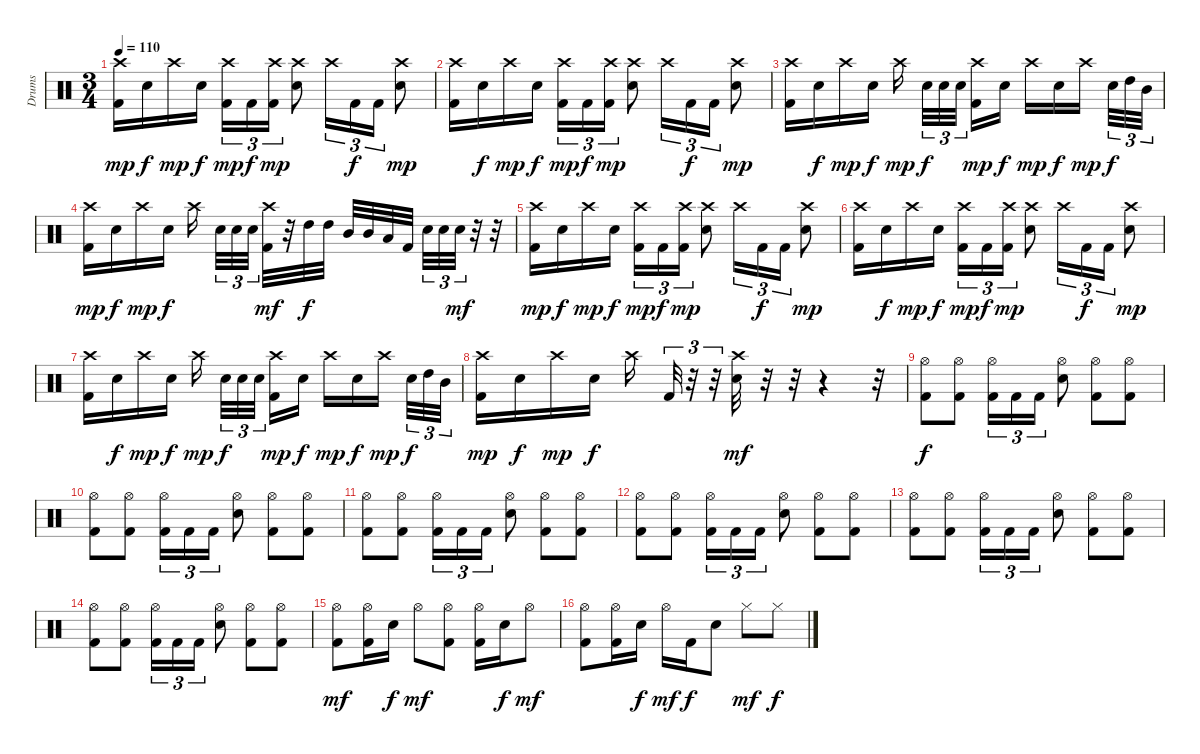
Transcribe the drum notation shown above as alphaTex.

\track ("Drums" "Drums") {instrument percussion}
\staff {score}
\articulation defaults
\ts (3 4)
\tempo 110
\clef neutral
\ks c
("Crash high (hit)" "Kick (hit) 2").16{dy mp} "Snare (hit) 2".16{dy f} "Crash high (hit)".16{dy mp} "Snare (hit) 2".16{dy f} ("Crash high (hit)" "Kick (hit) 2").16{tu (3 2) dy mp} "Kick (hit) 2".16{tu (3 2) dy f} ("Crash high (hit)" "Kick (hit) 2").16{tu (3 2) dy mp} ("Crash high (hit)" "Snare (hit) 2").8 "Crash high (hit)".16{tu (3 2)} "Kick (hit) 2".16{tu (3 2) dy f} "Kick (hit) 2".16{tu (3 2)} ("Crash high (hit)" "Snare (hit) 2").8{dy mp} |
("Crash high (hit)" "Kick (hit) 2").16 "Snare (hit) 2".16{dy f} "Crash high (hit)".16{dy mp} "Snare (hit) 2".16{dy f} ("Crash high (hit)" "Kick (hit) 2").16{tu (3 2) dy mp} "Kick (hit) 2".16{tu (3 2) dy f} ("Crash high (hit)" "Kick (hit) 2").16{tu (3 2) dy mp} ("Crash high (hit)" "Snare (hit) 2").8 "Crash high (hit)".16{tu (3 2)} "Kick (hit) 2".16{tu (3 2) dy f} "Kick (hit) 2".16{tu (3 2)} ("Crash high (hit)" "Snare (hit) 2").8{dy mp} |
("Crash high (hit)" "Kick (hit) 2").16 "Snare (hit) 2".16{dy f} "Crash high (hit)".16{dy mp} "Snare (hit) 2".16{dy f} "Crash high (hit)".16{dy mp beam splitsecondary} "Snare (hit) 2".32{tu (3 2) dy f} "Snare (hit) 2".32{tu (3 2)} "Snare (hit) 2".32{tu (3 2) beam splitsecondary} ("Crash high (hit)" "Kick (hit) 2").16{dy mp} "Snare (hit) 2".16{dy f} "Crash high (hit)".16{dy mp} "Snare (hit) 2".16{dy f} "Crash high (hit)".16{dy mp beam splitsecondary} "Snare (hit) 2".32{tu (3 2) dy f} "High Tom (hit)".32{tu (3 2)} "Mid Tom (hit)".32{tu (3 2)} |
("Crash high (hit)" "Kick (hit) 2").16{dy mp} "Snare (hit) 2".16{dy f} "Crash high (hit)".16{dy mp} "Snare (hit) 2".16{dy f} "Crash high (hit)".16{beam splitsecondary} "Snare (hit) 2".32{tu (3 2)} "Snare (hit) 2".32{tu (3 2)} "Snare (hit) 2".32{tu (3 2) beam splitsecondary} ("Crash high (hit)" "Kick (hit) 2").32{dy mf} r.32 "High Tom (hit)".32{dy f} "High Tom (hit)".32 "Mid Tom (hit)".32 "Mid Tom (hit)".32 "Low Tom (hit)".32 "Kick (hit) 2".32{beam splitsecondary} "Snare (hit) 2".32{tu (3 2)} "Snare (hit) 2".32{tu (3 2)} "Snare (hit) 2".32{tu (3 2) dy mf} r.32 r.32 |
("Crash high (hit)" "Kick (hit) 2").16{dy mp} "Snare (hit) 2".16{dy f} "Crash high (hit)".16{dy mp} "Snare (hit) 2".16{dy f} ("Crash high (hit)" "Kick (hit) 2").16{tu (3 2) dy mp} "Kick (hit) 2".16{tu (3 2) dy f} ("Crash high (hit)" "Kick (hit) 2").16{tu (3 2) dy mp} ("Crash high (hit)" "Snare (hit) 2").8 "Crash high (hit)".16{tu (3 2)} "Kick (hit) 2".16{tu (3 2) dy f} "Kick (hit) 2".16{tu (3 2)} ("Crash high (hit)" "Snare (hit) 2").8{dy mp} |
("Crash high (hit)" "Kick (hit) 2").16 "Snare (hit) 2".16{dy f} "Crash high (hit)".16{dy mp} "Snare (hit) 2".16{dy f} ("Crash high (hit)" "Kick (hit) 2").16{tu (3 2) dy mp} "Kick (hit) 2".16{tu (3 2) dy f} ("Crash high (hit)" "Kick (hit) 2").16{tu (3 2) dy mp} ("Crash high (hit)" "Snare (hit) 2").8 "Crash high (hit)".16{tu (3 2)} "Kick (hit) 2".16{tu (3 2) dy f} "Kick (hit) 2".16{tu (3 2)} ("Crash high (hit)" "Snare (hit) 2").8{dy mp} |
("Crash high (hit)" "Kick (hit) 2").16 "Snare (hit) 2".16{dy f} "Crash high (hit)".16{dy mp} "Snare (hit) 2".16{dy f} "Crash high (hit)".16{dy mp beam splitsecondary} "Snare (hit) 2".32{tu (3 2) dy f} "Snare (hit) 2".32{tu (3 2)} "Snare (hit) 2".32{tu (3 2) beam splitsecondary} ("Crash high (hit)" "Kick (hit) 2").16{dy mp} "Snare (hit) 2".16{dy f} "Crash high (hit)".16{dy mp} "Snare (hit) 2".16{dy f} "Crash high (hit)".16{dy mp beam splitsecondary} "Snare (hit) 2".32{tu (3 2) dy f} "High Tom (hit)".32{tu (3 2)} "Mid Tom (hit)".32{tu (3 2)} |
("Crash high (hit)" "Kick (hit) 2").16{dy mp} "Snare (hit) 2".16{dy f} "Crash high (hit)".16{dy mp} "Snare (hit) 2".16{dy f} "Crash high (hit)".16 "Kick (hit) 2".32{tu (3 2)} r.32{tu (3 2)} r.32{tu (3 2)} ("Crash high (hit)" "Snare (hit) 2").32{dy mf} r.32 r.32 r.4 r.32 |
("Hi-Hat (open)" "Kick (hit) 2").8{dy f} ("Hi-Hat (open)" "Kick (hit) 2").8 ("Hi-Hat (open)" "Kick (hit) 2").16{tu (3 2)} "Kick (hit) 2".16{tu (3 2)} "Kick (hit) 2".16{tu (3 2)} ("Hi-Hat (open)" "Snare (hit) 2").8 ("Hi-Hat (open)" "Kick (hit) 2").8 ("Hi-Hat (open)" "Kick (hit) 2").8 |
("Hi-Hat (open)" "Kick (hit) 2").8 ("Hi-Hat (open)" "Kick (hit) 2").8 ("Hi-Hat (open)" "Kick (hit) 2").16{tu (3 2)} "Kick (hit) 2".16{tu (3 2)} "Kick (hit) 2".16{tu (3 2)} ("Hi-Hat (open)" "Snare (hit) 2").8 ("Hi-Hat (open)" "Kick (hit) 2").8 ("Hi-Hat (open)" "Kick (hit) 2").8 |
("Hi-Hat (open)" "Kick (hit) 2").8 ("Hi-Hat (open)" "Kick (hit) 2").8 ("Hi-Hat (open)" "Kick (hit) 2").16{tu (3 2)} "Kick (hit) 2".16{tu (3 2)} "Kick (hit) 2".16{tu (3 2)} ("Hi-Hat (open)" "Snare (hit) 2").8 ("Hi-Hat (open)" "Kick (hit) 2").8 ("Hi-Hat (open)" "Kick (hit) 2").8 |
("Hi-Hat (open)" "Kick (hit) 2").8 ("Hi-Hat (open)" "Kick (hit) 2").8 ("Hi-Hat (open)" "Kick (hit) 2").16{tu (3 2)} "Kick (hit) 2".16{tu (3 2)} "Kick (hit) 2".16{tu (3 2)} ("Hi-Hat (open)" "Snare (hit) 2").8 ("Hi-Hat (open)" "Kick (hit) 2").8 ("Hi-Hat (open)" "Kick (hit) 2").8 |
("Hi-Hat (open)" "Kick (hit) 2").8 ("Hi-Hat (open)" "Kick (hit) 2").8 ("Hi-Hat (open)" "Kick (hit) 2").16{tu (3 2)} "Kick (hit) 2".16{tu (3 2)} "Kick (hit) 2".16{tu (3 2)} ("Hi-Hat (open)" "Snare (hit) 2").8 ("Hi-Hat (open)" "Kick (hit) 2").8 ("Hi-Hat (open)" "Kick (hit) 2").8 |
("Hi-Hat (open)" "Kick (hit) 2").8 ("Hi-Hat (open)" "Kick (hit) 2").8 ("Hi-Hat (open)" "Kick (hit) 2").16{tu (3 2)} "Kick (hit) 2".16{tu (3 2)} "Kick (hit) 2".16{tu (3 2)} ("Hi-Hat (open)" "Snare (hit) 2").8 ("Hi-Hat (open)" "Kick (hit) 2").8 ("Hi-Hat (open)" "Kick (hit) 2").8 |
("Hi-Hat (open)" "Kick (hit) 2").8{dy mf} ("Hi-Hat (open)" "Kick (hit) 2").16 "Snare (hit) 2".16{dy f} "Hi-Hat (open)".8{dy mf} ("Hi-Hat (open)" "Kick (hit) 2").8 ("Hi-Hat (open)" "Kick (hit) 2").16 "Snare (hit) 2".16{dy f} "Hi-Hat (open)".8{dy mf} |
("Hi-Hat (open)" "Kick (hit) 2").8 ("Hi-Hat (open)" "Kick (hit) 2").16 "Snare (hit) 2".16{dy f} "Hi-Hat (open)".16{dy mf} "Kick (hit) 2".16{dy f} "Snare (hit) 2".8 "Hi-Hat (closed)".8{dy mf} "Hi-Hat (closed)".8{dy f}
